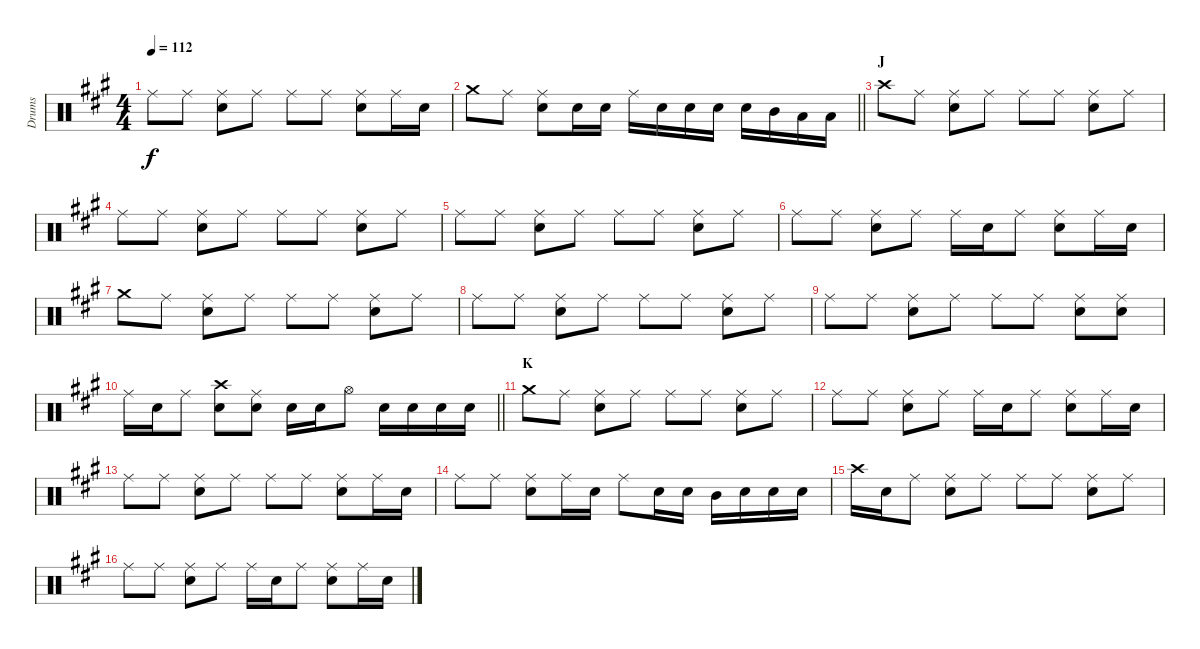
\track ("Drums" "Drums") {instrument percussion}
\staff {score}
\articulation defaults
\ts (4 4)
\tempo 112
\clef neutral
\ks a "Ride (middle)".8{dy f} "Ride (middle)".8
("Ride (middle)" "Snare (hit) 2").8 "Ride (middle)".8 "Ride (middle)".8 "Ride (middle)".8 ("Ride (middle)" "Snare (hit) 2").8 "Ride (middle)".16 "Snare (hit) 2".16 |
\barLineRight lightlight "Crash medium (hit)".8 "Ride (middle)".8
("Ride (middle)" "Snare (hit) 2").8 "Snare (hit) 2".16 "Snare (hit) 2".16 "Ride (middle)".16 "Snare (hit) 2".16 "Snare (hit) 2".16 "Snare (hit) 2".16 "Snare (hit) 2".16 "Mid Tom (hit)".16 "Low Tom (hit)".16 "Low Tom (hit)".16 |
\section ("" "J")
"Crash high (hit)".8 "Ride (middle)".8 ("Ride (middle)" "Snare (hit) 2").8 "Ride (middle)".8 "Ride (middle)".8 "Ride (middle)".8 ("Ride (middle)" "Snare (hit) 2").8 "Ride (middle)".8 |
"Ride (middle)".8 "Ride (middle)".8 ("Ride (middle)" "Snare (hit) 2").8 "Ride (middle)".8 "Ride (middle)".8 "Ride (middle)".8 ("Ride (middle)" "Snare (hit) 2").8 "Ride (middle)".8 |
"Ride (middle)".8 "Ride (middle)".8 ("Ride (middle)" "Snare (hit) 2").8 "Ride (middle)".8 "Ride (middle)".8 "Ride (middle)".8 ("Ride (middle)" "Snare (hit) 2").8 "Ride (middle)".8 |
"Ride (middle)".8 "Ride (middle)".8 ("Ride (middle)" "Snare (hit) 2").8 "Ride (middle)".8 "Ride (middle)".16 "Snare (hit) 2".16 "Ride (middle)".8 ("Ride (middle)" "Snare (hit) 2").8 "Ride (middle)".16 "Snare (hit) 2".16 |
"Crash medium (hit)".8 "Ride (middle)".8 ("Ride (middle)" "Snare (hit) 2").8 "Ride (middle)".8 "Ride (middle)".8 "Ride (middle)".8 ("Ride (middle)" "Snare (hit) 2").8 "Ride (middle)".8 |
"Ride (middle)".8 "Ride (middle)".8 ("Ride (middle)" "Snare (hit) 2").8 "Ride (middle)".8 "Ride (middle)".8 "Ride (middle)".8 ("Ride (middle)" "Snare (hit) 2").8 "Ride (middle)".8 |
"Ride (middle)".8 "Ride (middle)".8 ("Ride (middle)" "Snare (hit) 2").8 "Ride (middle)".8 "Ride (middle)".8 "Ride (middle)".8 ("Ride (middle)" "Snare (hit) 2").8 ("Ride (middle)" "Snare (hit) 2").8 |
\barLineRight lightlight "Ride (middle)".16 "Snare (hit) 2".16 "Ride (middle)".8
("Crash high (hit)" "Snare (hit) 2").8 ("Ride (middle)" "Snare (hit) 2").8 "Snare (hit) 2".16 "Snare (hit) 2".16 "Hi-Hat (open)".8 "Snare (hit) 2".16 "Snare (hit) 2".16 "Snare (hit) 2".16 "Snare (hit) 2".16 |
\section ("" "K")
"Crash medium (hit)".8 "Ride (middle)".8 ("Ride (middle)" "Snare (hit) 2").8 "Ride (middle)".8 "Ride (middle)".8 "Ride (middle)".8 ("Ride (middle)" "Snare (hit) 2").8 "Ride (middle)".8 |
"Ride (middle)".8 "Ride (middle)".8 ("Ride (middle)" "Snare (hit) 2").8 "Ride (middle)".8 "Ride (middle)".16 "Snare (hit) 2".16 "Ride (middle)".8 ("Ride (middle)" "Snare (hit) 2").8 "Ride (middle)".16 "Snare (hit) 2".16 |
"Ride (middle)".8 "Ride (middle)".8 ("Ride (middle)" "Snare (hit) 2").8 "Ride (middle)".8 "Ride (middle)".8 "Ride (middle)".8 ("Ride (middle)" "Snare (hit) 2").8 "Ride (middle)".16 "Snare (hit) 2".16 |
"Ride (middle)".8 "Ride (middle)".8 ("Ride (middle)" "Snare (hit) 2").8 "Ride (middle)".16 "Snare (hit) 2".16 "Ride (middle)".8 "Snare (hit) 2".16 "Snare (hit) 2".16 "Mid Tom (hit)".16 "Snare (hit) 2".16 "Snare (hit) 2".16 "Snare (hit) 2".16 |
"Crash high (hit)".16 "Snare (hit) 2".16 "Ride (middle)".8 ("Ride (middle)" "Snare (hit) 2").8 "Ride (middle)".8 "Ride (middle)".8 "Ride (middle)".8 ("Ride (middle)" "Snare (hit) 2").8 "Ride (middle)".8 |
"Ride (middle)".8 "Ride (middle)".8 ("Ride (middle)" "Snare (hit) 2").8 "Ride (middle)".8 "Ride (middle)".16 "Snare (hit) 2".16 "Ride (middle)".8 ("Ride (middle)" "Snare (hit) 2").8 "Ride (middle)".16 "Snare (hit) 2".16
